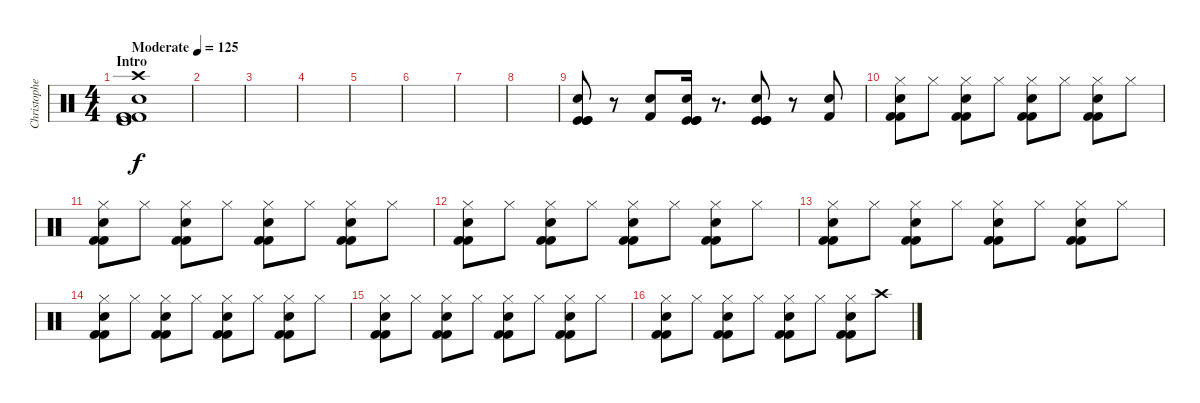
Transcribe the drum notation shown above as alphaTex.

\track ("Christopher S. (Drums)" "Christophe") {instrument percussion}
\staff {score}
\articulation defaults
\ts (4 4)
\section ("" "Intro")
\tempo (125 "Moderate")
\clef neutral
\ks c
("Electric Snare (hit)" "Kick (hit)" "Kick (hit) 2" "Kick (hit) 2" "Crash high (hit)" "Kick (hit) 2").1{dy f} |
|
|
|
|
|
|
|
("Snare (hit) 2" "Kick (hit)" "Kick (hit)" "Kick (hit)").8 r.8 ("Electric Snare (hit)" "Kick (hit) 2").8 ("Snare (hit) 2" "Kick (hit)" "Kick (hit)" "Kick (hit)").16 r.8{d} ("Snare (hit) 2" "Kick (hit)" "Kick (hit)" "Kick (hit)").8 r.8 ("Electric Snare (hit)" "Kick (hit) 2").8 |
("Hi-Hat (closed)" "Kick (hit) 2" "Kick (hit) 2" "Electric Snare (hit)").8 "Hi-Hat (closed)".8 ("Hi-Hat (closed)" "Kick (hit) 2" "Kick (hit) 2" "Electric Snare (hit)").8 "Hi-Hat (closed)".8 ("Hi-Hat (closed)" "Kick (hit) 2" "Kick (hit) 2" "Electric Snare (hit)").8 "Hi-Hat (closed)".8 ("Hi-Hat (closed)" "Kick (hit) 2" "Kick (hit) 2" "Electric Snare (hit)").8 "Hi-Hat (closed)".8 |
("Hi-Hat (closed)" "Kick (hit) 2" "Kick (hit) 2" "Electric Snare (hit)").8 "Hi-Hat (closed)".8 ("Hi-Hat (closed)" "Kick (hit) 2" "Kick (hit) 2" "Electric Snare (hit)").8 "Hi-Hat (closed)".8 ("Hi-Hat (closed)" "Kick (hit) 2" "Kick (hit) 2" "Electric Snare (hit)").8 "Hi-Hat (closed)".8 ("Hi-Hat (closed)" "Kick (hit) 2" "Kick (hit) 2" "Electric Snare (hit)").8 "Hi-Hat (closed)".8 |
("Hi-Hat (closed)" "Kick (hit) 2" "Kick (hit) 2" "Electric Snare (hit)").8 "Hi-Hat (closed)".8 ("Hi-Hat (closed)" "Kick (hit) 2" "Kick (hit) 2" "Electric Snare (hit)").8 "Hi-Hat (closed)".8 ("Hi-Hat (closed)" "Kick (hit) 2" "Kick (hit) 2" "Electric Snare (hit)").8 "Hi-Hat (closed)".8 ("Hi-Hat (closed)" "Kick (hit) 2" "Kick (hit) 2" "Electric Snare (hit)").8 "Hi-Hat (closed)".8 |
("Hi-Hat (closed)" "Kick (hit) 2" "Kick (hit) 2" "Electric Snare (hit)").8 "Hi-Hat (closed)".8 ("Hi-Hat (closed)" "Kick (hit) 2" "Kick (hit) 2" "Electric Snare (hit)").8 "Hi-Hat (closed)".8 ("Hi-Hat (closed)" "Kick (hit) 2" "Kick (hit) 2" "Electric Snare (hit)").8 "Hi-Hat (closed)".8 ("Hi-Hat (closed)" "Kick (hit) 2" "Kick (hit) 2" "Electric Snare (hit)").8 "Hi-Hat (closed)".8 |
("Hi-Hat (closed)" "Kick (hit) 2" "Kick (hit) 2" "Electric Snare (hit)").8 "Hi-Hat (closed)".8 ("Hi-Hat (closed)" "Kick (hit) 2" "Kick (hit) 2" "Electric Snare (hit)").8 "Hi-Hat (closed)".8 ("Hi-Hat (closed)" "Kick (hit) 2" "Kick (hit) 2" "Electric Snare (hit)").8 "Hi-Hat (closed)".8 ("Hi-Hat (closed)" "Kick (hit) 2" "Kick (hit) 2" "Electric Snare (hit)").8 "Hi-Hat (closed)".8 |
("Hi-Hat (closed)" "Kick (hit) 2" "Kick (hit) 2" "Electric Snare (hit)").8 "Hi-Hat (closed)".8 ("Hi-Hat (closed)" "Kick (hit) 2" "Kick (hit) 2" "Electric Snare (hit)").8 "Hi-Hat (closed)".8 ("Hi-Hat (closed)" "Kick (hit) 2" "Kick (hit) 2" "Electric Snare (hit)").8 "Hi-Hat (closed)".8 ("Hi-Hat (closed)" "Kick (hit) 2" "Kick (hit) 2" "Electric Snare (hit)").8 "Hi-Hat (closed)".8 |
("Hi-Hat (closed)" "Kick (hit) 2" "Kick (hit) 2" "Electric Snare (hit)").8 "Hi-Hat (closed)".8 ("Hi-Hat (closed)" "Kick (hit) 2" "Kick (hit) 2" "Electric Snare (hit)").8 "Hi-Hat (closed)".8 ("Hi-Hat (closed)" "Kick (hit) 2" "Kick (hit) 2" "Electric Snare (hit)").8 "Hi-Hat (closed)".8 ("Hi-Hat (closed)" "Kick (hit) 2" "Kick (hit) 2" "Electric Snare (hit)").8 "Crash high (hit)".8
